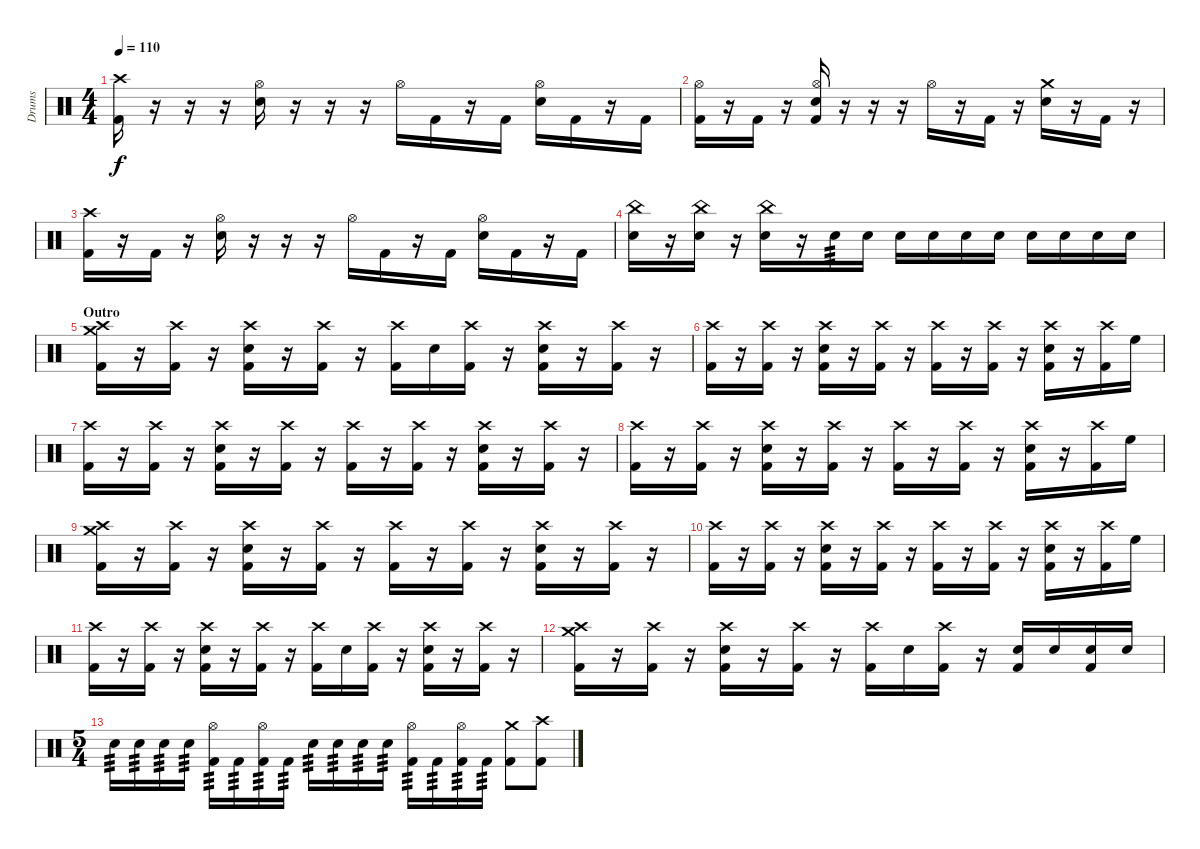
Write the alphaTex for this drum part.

\track ("Drums" "Drums") {instrument percussion}
\staff {score}
\articulation defaults
\ts (4 4)
\tempo 110
\clef neutral
\ks c
("Crash high (hit)" "Kick (hit) 2").16{dy f} r.16 r.16 r.16 ("Hi-Hat (open)" "Snare (hit) 2").16 r.16 r.16 r.16 "Hi-Hat (open)".16 "Kick (hit) 2".16 r.16 "Kick (hit) 2".16 ("Hi-Hat (open)" "Snare (hit) 2").16 "Kick (hit) 2".16 r.16 "Kick (hit) 2".16 |
("Hi-Hat (open)" "Kick (hit) 2").16 r.16 "Kick (hit) 2".16 r.16 ("Hi-Hat (open)" "Snare (hit) 2" "Kick (hit) 2").16 r.16 r.16 r.16 "Hi-Hat (open)".16 r.16 "Kick (hit) 2".16 r.16 ("Crash medium (hit)" "Snare (hit) 2").16 r.16 "Kick (hit) 2".16 r.16 |
("Crash high (hit)" "Kick (hit) 2").16 r.16 "Kick (hit) 2".16 r.16 ("Hi-Hat (open)" "Snare (hit) 2").16 r.16 r.16 r.16 "Hi-Hat (open)".16 "Kick (hit) 2".16 r.16 "Kick (hit) 2".16 ("Hi-Hat (open)" "Snare (hit) 2").16 "Kick (hit) 2".16 r.16 "Kick (hit) 2".16 |
("China (hit)" "Snare (hit) 2").16 r.16 ("China (hit)" "Snare (hit) 2").16 r.16 ("China (hit)" "Snare (hit) 2").16 r.16 "Snare (hit) 2".16{tp 3} "Snare (hit) 2".16 "Snare (hit) 2".16 "Snare (hit) 2".16 "Snare (hit) 2".16 "Snare (hit) 2".16 "Snare (hit) 2".16 "Snare (hit) 2".16 "Snare (hit) 2".16 "Snare (hit) 2".16 |
\section ("" "Outro")
("Crash high (hit)" "Crash medium (hit)" "Kick (hit) 2").16 r.16 ("Crash high (hit)" "Kick (hit) 2").16 r.16 ("Crash high (hit)" "Snare (hit) 2" "Kick (hit) 2").16 r.16 ("Crash high (hit)" "Kick (hit) 2").16 r.16 ("Crash high (hit)" "Kick (hit) 2").16 "Snare (hit) 2".16 ("Crash high (hit)" "Kick (hit) 2").16 r.16 ("Crash high (hit)" "Snare (hit) 2" "Kick (hit) 2").16 r.16 ("Crash high (hit)" "Kick (hit) 2").16 r.16 |
("Crash high (hit)" "Kick (hit) 2").16 r.16 ("Crash high (hit)" "Kick (hit) 2").16 r.16 ("Crash high (hit)" "Snare (hit) 2" "Kick (hit) 2").16 r.16 ("Crash high (hit)" "Kick (hit) 2").16 r.16 ("Crash high (hit)" "Kick (hit) 2").16 r.16 ("Crash high (hit)" "Kick (hit) 2").16 r.16 ("Crash high (hit)" "Snare (hit) 2" "Kick (hit) 2").16 r.16 ("Crash high (hit)" "Kick (hit) 2").16 "High Floor Tom (hit)".16 |
("Crash high (hit)" "Kick (hit) 2").16 r.16 ("Crash high (hit)" "Kick (hit) 2").16 r.16 ("Crash high (hit)" "Snare (hit) 2" "Kick (hit) 2").16 r.16 ("Crash high (hit)" "Kick (hit) 2").16 r.16 ("Crash high (hit)" "Kick (hit) 2").16 r.16 ("Crash high (hit)" "Kick (hit) 2").16 r.16 ("Crash high (hit)" "Snare (hit) 2" "Kick (hit) 2").16 r.16 ("Crash high (hit)" "Kick (hit) 2").16 r.16 |
("Crash high (hit)" "Kick (hit) 2").16 r.16 ("Crash high (hit)" "Kick (hit) 2").16 r.16 ("Crash high (hit)" "Snare (hit) 2" "Kick (hit) 2").16 r.16 ("Crash high (hit)" "Kick (hit) 2").16 r.16 ("Crash high (hit)" "Kick (hit) 2").16 r.16 ("Crash high (hit)" "Kick (hit) 2").16 r.16 ("Crash high (hit)" "Snare (hit) 2" "Kick (hit) 2").16 r.16 ("Crash high (hit)" "Kick (hit) 2").16 "High Floor Tom (hit)".16 |
("Crash high (hit)" "Crash medium (hit)" "Kick (hit) 2").16 r.16 ("Crash high (hit)" "Kick (hit) 2").16 r.16 ("Crash high (hit)" "Snare (hit) 2" "Kick (hit) 2").16 r.16 ("Crash high (hit)" "Kick (hit) 2").16 r.16 ("Crash high (hit)" "Kick (hit) 2").16 r.16 ("Crash high (hit)" "Kick (hit) 2").16 r.16 ("Crash high (hit)" "Snare (hit) 2" "Kick (hit) 2").16 r.16 ("Crash high (hit)" "Kick (hit) 2").16 r.16 |
("Crash high (hit)" "Kick (hit) 2").16 r.16 ("Crash high (hit)" "Kick (hit) 2").16 r.16 ("Crash high (hit)" "Snare (hit) 2" "Kick (hit) 2").16 r.16 ("Crash high (hit)" "Kick (hit) 2").16 r.16 ("Crash high (hit)" "Kick (hit) 2").16 r.16 ("Crash high (hit)" "Kick (hit) 2").16 r.16 ("Crash high (hit)" "Snare (hit) 2" "Kick (hit) 2").16 r.16 ("Crash high (hit)" "Kick (hit) 2").16 "High Floor Tom (hit)".16 |
("Crash high (hit)" "Kick (hit) 2").16 r.16 ("Crash high (hit)" "Kick (hit) 2").16 r.16 ("Crash high (hit)" "Snare (hit) 2" "Kick (hit) 2").16 r.16 ("Crash high (hit)" "Kick (hit) 2").16 r.16 ("Crash high (hit)" "Kick (hit) 2").16 "Snare (hit) 2".16 ("Crash high (hit)" "Kick (hit) 2").16 r.16 ("Crash high (hit)" "Snare (hit) 2" "Kick (hit) 2").16 r.16 ("Crash high (hit)" "Kick (hit) 2").16 r.16 |
("Crash high (hit)" "Crash medium (hit)" "Kick (hit) 2").16 r.16 ("Crash high (hit)" "Kick (hit) 2").16 r.16 ("Crash high (hit)" "Snare (hit) 2" "Kick (hit) 2").16 r.16 ("Crash high (hit)" "Kick (hit) 2").16 r.16 ("Crash high (hit)" "Kick (hit) 2").16 "Snare (hit) 2".16 ("Crash high (hit)" "Kick (hit) 2").16 r.16 ("Snare (hit) 2" "Kick (hit) 2").16 "Snare (hit) 2".16 ("Snare (hit) 2" "Kick (hit) 2").16 "Snare (hit) 2".16 |
\ts (5 4)
"Snare (hit) 2".16{tp 3} "Snare (hit) 2".16{tp 3} "Snare (hit) 2".16{tp 3} "Snare (hit) 2".16{tp 3} ("Hi-Hat (open)" "Kick (hit) 2").16{tp 3} "Kick (hit) 2".16{tp 3} ("Hi-Hat (open)" "Kick (hit) 2").16{tp 3} "Kick (hit) 2".16{tp 3} "Snare (hit) 2".16{tp 3} "Snare (hit) 2".16{tp 3} "Snare (hit) 2".16{tp 3} "Snare (hit) 2".16{tp 3} ("Hi-Hat (open)" "Kick (hit) 2").16{tp 3} "Kick (hit) 2".16{tp 3} ("Hi-Hat (open)" "Kick (hit) 2").16{tp 3} "Kick (hit) 2".16{tp 3} ("Crash medium (hit)" "Kick (hit) 2").8 ("Crash high (hit)" "Kick (hit) 2").8
